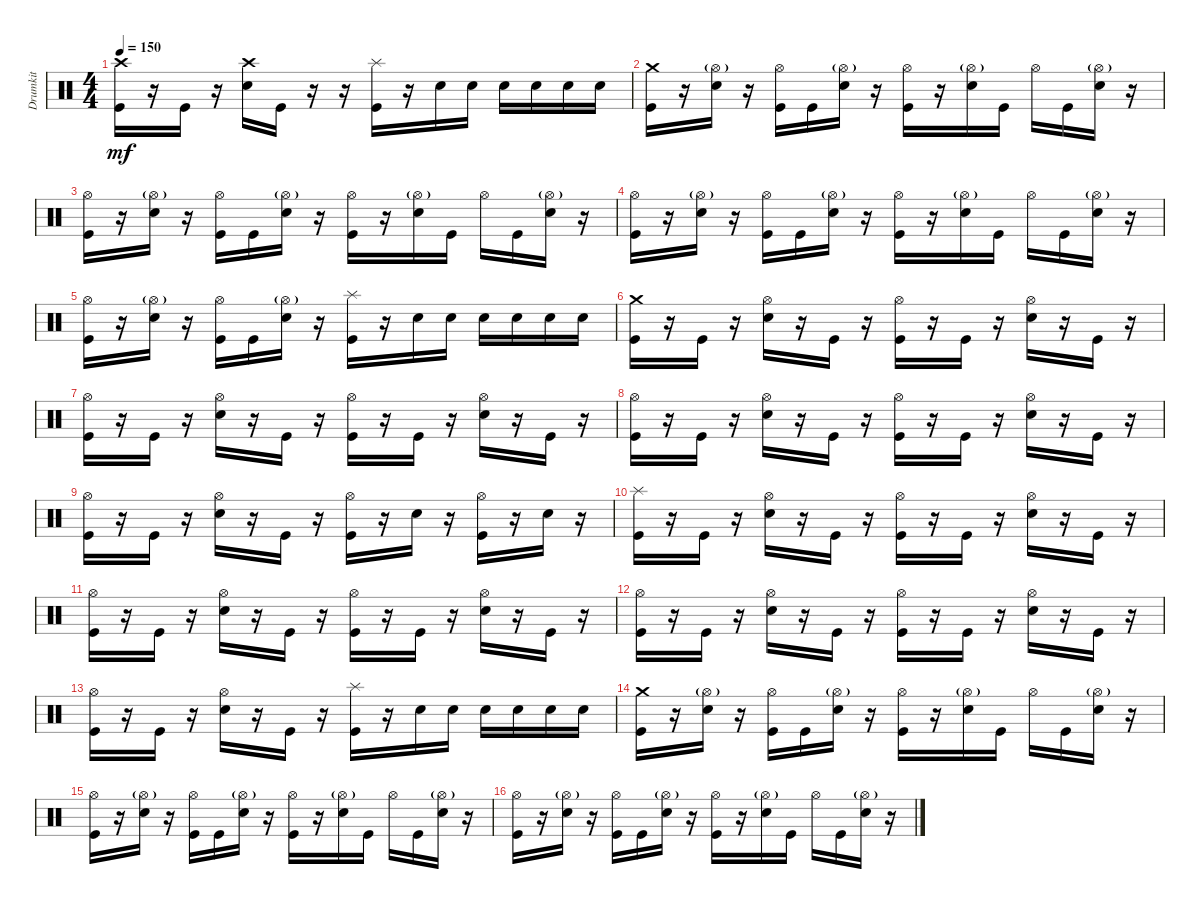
\track ("Drumkit" "Drumkit") {instrument percussion}
\staff {score}
\articulation defaults
\ts (4 4)
\tempo 150
\clef neutral
\ks c
("Kick (hit)" "Crash high (hit)").16{dy mf} r.16 "Kick (hit)".16 r.16 ("Snare (hit) 2" "Crash high (hit)").16 "Kick (hit)".16 r.16 r.16 ("Kick (hit)" "Splash (hit)").16 r.16 "Snare (hit) 2".16 "Snare (hit) 2".16 "Snare (hit) 2".16 "Snare (hit) 2".16 "Snare (hit) 2".16 "Snare (hit) 2".16 |
("Kick (hit)" "Crash medium (hit)").16 r.16 ("Hi-Hat (open)"{g} "Snare (hit) 2").16 r.16 ("Hi-Hat (open)" "Kick (hit)").16 "Kick (hit)".16 ("Hi-Hat (open)"{g} "Snare (hit) 2").16 r.16 ("Hi-Hat (open)" "Kick (hit)").16 r.16 ("Hi-Hat (open)"{g} "Snare (hit) 2").16 "Kick (hit)".16 "Hi-Hat (open)".16 "Kick (hit)".16 ("Hi-Hat (open)"{g} "Snare (hit) 2").16 r.16 |
("Kick (hit)" "Hi-Hat (open)").16 r.16 ("Hi-Hat (open)"{g} "Snare (hit) 2").16 r.16 ("Hi-Hat (open)" "Kick (hit)").16 "Kick (hit)".16 ("Hi-Hat (open)"{g} "Snare (hit) 2").16 r.16 ("Hi-Hat (open)" "Kick (hit)").16 r.16 ("Hi-Hat (open)"{g} "Snare (hit) 2").16 "Kick (hit)".16 "Hi-Hat (open)".16 "Kick (hit)".16 ("Hi-Hat (open)"{g} "Snare (hit) 2").16 r.16 |
("Kick (hit)" "Hi-Hat (open)").16 r.16 ("Hi-Hat (open)"{g} "Snare (hit) 2").16 r.16 ("Hi-Hat (open)" "Kick (hit)").16 "Kick (hit)".16 ("Hi-Hat (open)"{g} "Snare (hit) 2").16 r.16 ("Hi-Hat (open)" "Kick (hit)").16 r.16 ("Hi-Hat (open)"{g} "Snare (hit) 2").16 "Kick (hit)".16 "Hi-Hat (open)".16 "Kick (hit)".16 ("Hi-Hat (open)"{g} "Snare (hit) 2").16 r.16 |
("Kick (hit)" "Hi-Hat (open)").16 r.16 ("Snare (hit) 2" "Hi-Hat (open)"{g}).16 r.16 ("Kick (hit)" "Hi-Hat (open)").16 "Kick (hit)".16 ("Snare (hit) 2" "Hi-Hat (open)"{g}).16 r.16 ("Kick (hit)" "Splash (hit)").16 r.16 "Snare (hit) 2".16 "Snare (hit) 2".16 "Snare (hit) 2".16 "Snare (hit) 2".16 "Snare (hit) 2".16 "Snare (hit) 2".16 |
("Kick (hit)" "Crash medium (hit)").16 r.16 "Kick (hit)".16 r.16 ("Snare (hit) 2" "Hi-Hat (open)").16 r.16 "Kick (hit)".16 r.16 ("Kick (hit)" "Hi-Hat (open)").16 r.16 "Kick (hit)".16 r.16 ("Snare (hit) 2" "Hi-Hat (open)").16 r.16 "Kick (hit)".16 r.16 |
("Kick (hit)" "Hi-Hat (open)").16 r.16 "Kick (hit)".16 r.16 ("Snare (hit) 2" "Hi-Hat (open)").16 r.16 "Kick (hit)".16 r.16 ("Kick (hit)" "Hi-Hat (open)").16 r.16 "Kick (hit)".16 r.16 ("Snare (hit) 2" "Hi-Hat (open)").16 r.16 "Kick (hit)".16 r.16 |
("Kick (hit)" "Hi-Hat (open)").16 r.16 "Kick (hit)".16 r.16 ("Snare (hit) 2" "Hi-Hat (open)").16 r.16 "Kick (hit)".16 r.16 ("Kick (hit)" "Hi-Hat (open)").16 r.16 "Kick (hit)".16 r.16 ("Snare (hit) 2" "Hi-Hat (open)").16 r.16 "Kick (hit)".16 r.16 |
("Kick (hit)" "Hi-Hat (open)").16 r.16 "Kick (hit)".16 r.16 ("Snare (hit) 2" "Hi-Hat (open)").16 r.16 "Kick (hit)".16 r.16 ("Kick (hit)" "Hi-Hat (open)").16 r.16 "Snare (hit) 2".16 r.16 ("Kick (hit)" "Hi-Hat (open)").16 r.16 "Snare (hit) 2".16 r.16 |
("Kick (hit)" "Splash (hit)").16 r.16 "Kick (hit)".16 r.16 ("Snare (hit) 2" "Hi-Hat (open)").16 r.16 "Kick (hit)".16 r.16 ("Kick (hit)" "Hi-Hat (open)").16 r.16 "Kick (hit)".16 r.16 ("Snare (hit) 2" "Hi-Hat (open)").16 r.16 "Kick (hit)".16 r.16 |
("Kick (hit)" "Hi-Hat (open)").16 r.16 "Kick (hit)".16 r.16 ("Snare (hit) 2" "Hi-Hat (open)").16 r.16 "Kick (hit)".16 r.16 ("Kick (hit)" "Hi-Hat (open)").16 r.16 "Kick (hit)".16 r.16 ("Snare (hit) 2" "Hi-Hat (open)").16 r.16 "Kick (hit)".16 r.16 |
("Kick (hit)" "Hi-Hat (open)").16 r.16 "Kick (hit)".16 r.16 ("Snare (hit) 2" "Hi-Hat (open)").16 r.16 "Kick (hit)".16 r.16 ("Kick (hit)" "Hi-Hat (open)").16 r.16 "Kick (hit)".16 r.16 ("Snare (hit) 2" "Hi-Hat (open)").16 r.16 "Kick (hit)".16 r.16 |
("Kick (hit)" "Hi-Hat (open)").16 r.16 "Kick (hit)".16 r.16 ("Snare (hit) 2" "Hi-Hat (open)").16 r.16 "Kick (hit)".16 r.16 ("Kick (hit)" "Splash (hit)").16 r.16 "Snare (hit) 2".16 "Snare (hit) 2".16 "Snare (hit) 2".16 "Snare (hit) 2".16 "Snare (hit) 2".16 "Snare (hit) 2".16 |
("Kick (hit)" "Crash medium (hit)").16 r.16 ("Hi-Hat (open)"{g} "Snare (hit) 2").16 r.16 ("Hi-Hat (open)" "Kick (hit)").16 "Kick (hit)".16 ("Hi-Hat (open)"{g} "Snare (hit) 2").16 r.16 ("Hi-Hat (open)" "Kick (hit)").16 r.16 ("Hi-Hat (open)"{g} "Snare (hit) 2").16 "Kick (hit)".16 "Hi-Hat (open)".16 "Kick (hit)".16 ("Hi-Hat (open)"{g} "Snare (hit) 2").16 r.16 |
("Kick (hit)" "Hi-Hat (open)").16 r.16 ("Hi-Hat (open)"{g} "Snare (hit) 2").16 r.16 ("Hi-Hat (open)" "Kick (hit)").16 "Kick (hit)".16 ("Hi-Hat (open)"{g} "Snare (hit) 2").16 r.16 ("Hi-Hat (open)" "Kick (hit)").16 r.16 ("Hi-Hat (open)"{g} "Snare (hit) 2").16 "Kick (hit)".16 "Hi-Hat (open)".16 "Kick (hit)".16 ("Hi-Hat (open)"{g} "Snare (hit) 2").16 r.16 |
("Kick (hit)" "Hi-Hat (open)").16 r.16 ("Hi-Hat (open)"{g} "Snare (hit) 2").16 r.16 ("Hi-Hat (open)" "Kick (hit)").16 "Kick (hit)".16 ("Hi-Hat (open)"{g} "Snare (hit) 2").16 r.16 ("Hi-Hat (open)" "Kick (hit)").16 r.16 ("Hi-Hat (open)"{g} "Snare (hit) 2").16 "Kick (hit)".16 "Hi-Hat (open)".16 "Kick (hit)".16 ("Hi-Hat (open)"{g} "Snare (hit) 2").16 r.16
